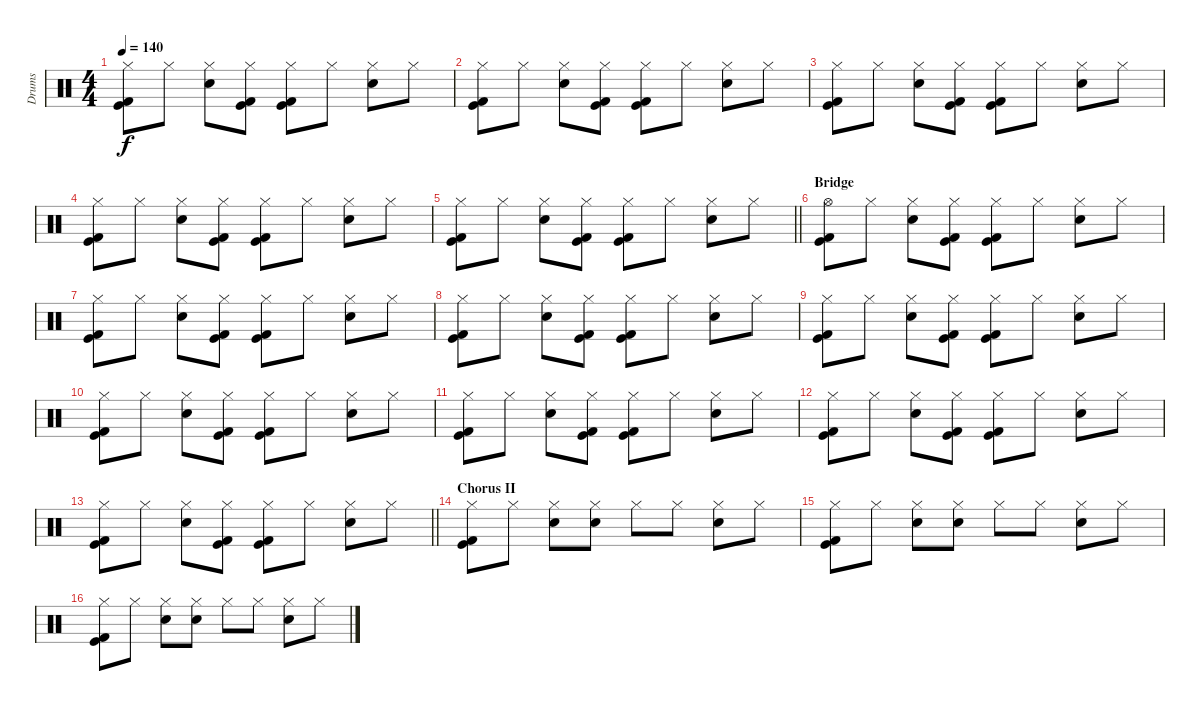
\track ("Drums" "Drums") {instrument percussion}
\staff {score}
\articulation defaults
\ts (4 4)
\tempo 140
\clef neutral
\ks c
("Hi-Hat (closed)" "Kick (hit) 2" "Kick (hit)").8{dy f} "Hi-Hat (closed)".8 ("Hi-Hat (closed)" "Snare (hit) 2").8 ("Hi-Hat (closed)" "Kick (hit) 2" "Kick (hit)").8 ("Hi-Hat (closed)" "Kick (hit) 2" "Kick (hit)").8 "Hi-Hat (closed)".8 ("Hi-Hat (closed)" "Snare (hit) 2").8 "Hi-Hat (closed)".8 |
("Hi-Hat (closed)" "Kick (hit) 2" "Kick (hit)").8 "Hi-Hat (closed)".8 ("Hi-Hat (closed)" "Snare (hit) 2").8 ("Hi-Hat (closed)" "Kick (hit) 2" "Kick (hit)").8 ("Hi-Hat (closed)" "Kick (hit) 2" "Kick (hit)").8 "Hi-Hat (closed)".8 ("Hi-Hat (closed)" "Snare (hit) 2").8 "Hi-Hat (closed)".8 |
("Hi-Hat (closed)" "Kick (hit) 2" "Kick (hit)").8 "Hi-Hat (closed)".8 ("Hi-Hat (closed)" "Snare (hit) 2").8 ("Hi-Hat (closed)" "Kick (hit) 2" "Kick (hit)").8 ("Hi-Hat (closed)" "Kick (hit) 2" "Kick (hit)").8 "Hi-Hat (closed)".8 ("Hi-Hat (closed)" "Snare (hit) 2").8 "Hi-Hat (closed)".8 |
("Hi-Hat (closed)" "Kick (hit) 2" "Kick (hit)").8 "Hi-Hat (closed)".8 ("Hi-Hat (closed)" "Snare (hit) 2").8 ("Hi-Hat (closed)" "Kick (hit) 2" "Kick (hit)").8 ("Hi-Hat (closed)" "Kick (hit) 2" "Kick (hit)").8 "Hi-Hat (closed)".8 ("Hi-Hat (closed)" "Snare (hit) 2").8 "Hi-Hat (closed)".8 |
\barLineRight lightlight
("Hi-Hat (closed)" "Kick (hit) 2" "Kick (hit)").8 "Hi-Hat (closed)".8 ("Hi-Hat (closed)" "Snare (hit) 2").8 ("Hi-Hat (closed)" "Kick (hit) 2" "Kick (hit)").8 ("Hi-Hat (closed)" "Kick (hit) 2" "Kick (hit)").8 "Hi-Hat (closed)".8 ("Hi-Hat (closed)" "Snare (hit) 2").8 "Hi-Hat (closed)".8 |
\section ("" "Bridge")
("Hi-Hat (open)" "Kick (hit) 2" "Kick (hit)").8 "Hi-Hat (closed)".8 ("Hi-Hat (closed)" "Snare (hit) 2").8 ("Hi-Hat (closed)" "Kick (hit) 2" "Kick (hit)").8 ("Hi-Hat (closed)" "Kick (hit) 2" "Kick (hit)").8 "Hi-Hat (closed)".8 ("Hi-Hat (closed)" "Snare (hit) 2").8 "Hi-Hat (closed)".8 |
("Hi-Hat (closed)" "Kick (hit) 2" "Kick (hit)").8 "Hi-Hat (closed)".8 ("Hi-Hat (closed)" "Snare (hit) 2").8 ("Hi-Hat (closed)" "Kick (hit) 2" "Kick (hit)").8 ("Hi-Hat (closed)" "Kick (hit) 2" "Kick (hit)").8 "Hi-Hat (closed)".8 ("Hi-Hat (closed)" "Snare (hit) 2").8 "Hi-Hat (closed)".8 |
("Hi-Hat (closed)" "Kick (hit) 2" "Kick (hit)").8 "Hi-Hat (closed)".8 ("Hi-Hat (closed)" "Snare (hit) 2").8 ("Hi-Hat (closed)" "Kick (hit) 2" "Kick (hit)").8 ("Hi-Hat (closed)" "Kick (hit) 2" "Kick (hit)").8 "Hi-Hat (closed)".8 ("Hi-Hat (closed)" "Snare (hit) 2").8 "Hi-Hat (closed)".8 |
("Hi-Hat (closed)" "Kick (hit) 2" "Kick (hit)").8 "Hi-Hat (closed)".8 ("Hi-Hat (closed)" "Snare (hit) 2").8 ("Hi-Hat (closed)" "Kick (hit) 2" "Kick (hit)").8 ("Hi-Hat (closed)" "Kick (hit) 2" "Kick (hit)").8 "Hi-Hat (closed)".8 ("Hi-Hat (closed)" "Snare (hit) 2").8 "Hi-Hat (closed)".8 |
("Hi-Hat (closed)" "Kick (hit) 2" "Kick (hit)").8 "Hi-Hat (closed)".8 ("Hi-Hat (closed)" "Snare (hit) 2").8 ("Hi-Hat (closed)" "Kick (hit) 2" "Kick (hit)").8 ("Hi-Hat (closed)" "Kick (hit) 2" "Kick (hit)").8 "Hi-Hat (closed)".8 ("Hi-Hat (closed)" "Snare (hit) 2").8 "Hi-Hat (closed)".8 |
("Hi-Hat (closed)" "Kick (hit) 2" "Kick (hit)").8 "Hi-Hat (closed)".8 ("Hi-Hat (closed)" "Snare (hit) 2").8 ("Hi-Hat (closed)" "Kick (hit) 2" "Kick (hit)").8 ("Hi-Hat (closed)" "Kick (hit) 2" "Kick (hit)").8 "Hi-Hat (closed)".8 ("Hi-Hat (closed)" "Snare (hit) 2").8 "Hi-Hat (closed)".8 |
("Hi-Hat (closed)" "Kick (hit) 2" "Kick (hit)").8 "Hi-Hat (closed)".8 ("Hi-Hat (closed)" "Snare (hit) 2").8 ("Hi-Hat (closed)" "Kick (hit) 2" "Kick (hit)").8 ("Hi-Hat (closed)" "Kick (hit) 2" "Kick (hit)").8 "Hi-Hat (closed)".8 ("Hi-Hat (closed)" "Snare (hit) 2").8 "Hi-Hat (closed)".8 |
\barLineRight lightlight
("Hi-Hat (closed)" "Kick (hit) 2" "Kick (hit)").8 "Hi-Hat (closed)".8 ("Hi-Hat (closed)" "Snare (hit) 2").8 ("Hi-Hat (closed)" "Kick (hit) 2" "Kick (hit)").8 ("Hi-Hat (closed)" "Kick (hit) 2" "Kick (hit)").8 "Hi-Hat (closed)".8 ("Hi-Hat (closed)" "Snare (hit) 2").8 "Hi-Hat (closed)".8 |
\section ("" "Chorus II")
("Hi-Hat (closed)" "Kick (hit) 2" "Kick (hit)").8 "Hi-Hat (closed)".8 ("Hi-Hat (closed)" "Snare (hit) 2").8 ("Hi-Hat (closed)" "Snare (hit) 2").8 "Hi-Hat (closed)".8 "Hi-Hat (closed)".8 ("Hi-Hat (closed)" "Snare (hit) 2").8 "Hi-Hat (closed)".8 |
("Hi-Hat (closed)" "Kick (hit) 2" "Kick (hit)").8 "Hi-Hat (closed)".8 ("Hi-Hat (closed)" "Snare (hit) 2").8 ("Hi-Hat (closed)" "Snare (hit) 2").8 "Hi-Hat (closed)".8 "Hi-Hat (closed)".8 ("Hi-Hat (closed)" "Snare (hit) 2").8 "Hi-Hat (closed)".8 |
("Hi-Hat (closed)" "Kick (hit) 2" "Kick (hit)").8 "Hi-Hat (closed)".8 ("Hi-Hat (closed)" "Snare (hit) 2").8 ("Hi-Hat (closed)" "Snare (hit) 2").8 "Hi-Hat (closed)".8 "Hi-Hat (closed)".8 ("Hi-Hat (closed)" "Snare (hit) 2").8 "Hi-Hat (closed)".8
